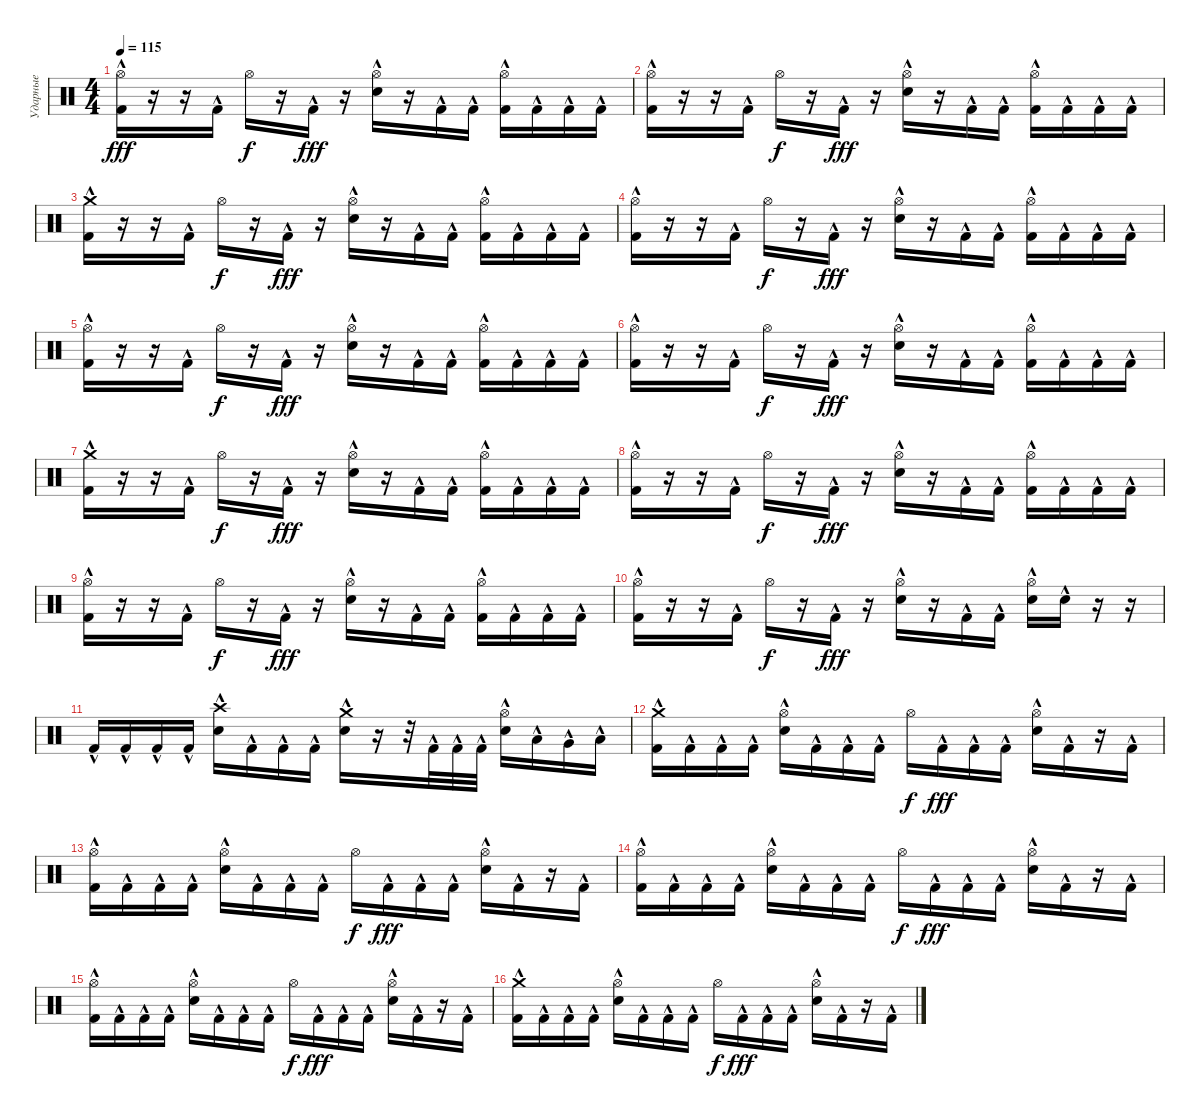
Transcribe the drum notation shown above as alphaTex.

\track ("Ударные" "Ударные") {instrument percussion}
\staff
\articulation defaults
\ts (4 4)
\tempo 115
\clef neutral
\ks c
("Hi-Hat (open)" "Kick (hit) 2"{hac}).16{dy fff} r.16 r.16 "Kick (hit) 2"{hac}.16 "Hi-Hat (open)".16{dy f} r.16 "Kick (hit) 2"{hac}.16{dy fff} r.16 ("Hi-Hat (open)" "Snare (hit) 2"{hac}).16 r.16 "Kick (hit) 2"{hac}.16 "Kick (hit) 2"{hac}.16 ("Hi-Hat (open)" "Kick (hit) 2"{hac}).16 "Kick (hit) 2"{hac}.16 "Kick (hit) 2"{hac}.16 "Kick (hit) 2"{hac}.16 |
("Hi-Hat (open)" "Kick (hit) 2"{hac}).16 r.16 r.16 "Kick (hit) 2"{hac}.16 "Hi-Hat (open)".16{dy f} r.16 "Kick (hit) 2"{hac}.16{dy fff} r.16 ("Hi-Hat (open)" "Snare (hit) 2"{hac}).16 r.16 "Kick (hit) 2"{hac}.16 "Kick (hit) 2"{hac}.16 ("Hi-Hat (open)" "Kick (hit) 2"{hac}).16 "Kick (hit) 2"{hac}.16 "Kick (hit) 2"{hac}.16 "Kick (hit) 2"{hac}.16 |
("Crash medium (hit)" "Kick (hit) 2"{hac}).16 r.16 r.16 "Kick (hit) 2"{hac}.16 "Hi-Hat (open)".16{dy f} r.16 "Kick (hit) 2"{hac}.16{dy fff} r.16 ("Hi-Hat (open)" "Snare (hit) 2"{hac}).16 r.16 "Kick (hit) 2"{hac}.16 "Kick (hit) 2"{hac}.16 ("Hi-Hat (open)" "Kick (hit) 2"{hac}).16 "Kick (hit) 2"{hac}.16 "Kick (hit) 2"{hac}.16 "Kick (hit) 2"{hac}.16 |
("Hi-Hat (open)" "Kick (hit) 2"{hac}).16 r.16 r.16 "Kick (hit) 2"{hac}.16 "Hi-Hat (open)".16{dy f} r.16 "Kick (hit) 2"{hac}.16{dy fff} r.16 ("Hi-Hat (open)" "Snare (hit) 2"{hac}).16 r.16 "Kick (hit) 2"{hac}.16 "Kick (hit) 2"{hac}.16 ("Hi-Hat (open)" "Kick (hit) 2"{hac}).16 "Kick (hit) 2"{hac}.16 "Kick (hit) 2"{hac}.16 "Kick (hit) 2"{hac}.16 |
("Hi-Hat (open)" "Kick (hit) 2"{hac}).16 r.16 r.16 "Kick (hit) 2"{hac}.16 "Hi-Hat (open)".16{dy f} r.16 "Kick (hit) 2"{hac}.16{dy fff} r.16 ("Hi-Hat (open)" "Snare (hit) 2"{hac}).16 r.16 "Kick (hit) 2"{hac}.16 "Kick (hit) 2"{hac}.16 ("Hi-Hat (open)" "Kick (hit) 2"{hac}).16 "Kick (hit) 2"{hac}.16 "Kick (hit) 2"{hac}.16 "Kick (hit) 2"{hac}.16 |
("Hi-Hat (open)" "Kick (hit) 2"{hac}).16 r.16 r.16 "Kick (hit) 2"{hac}.16 "Hi-Hat (open)".16{dy f} r.16 "Kick (hit) 2"{hac}.16{dy fff} r.16 ("Hi-Hat (open)" "Snare (hit) 2"{hac}).16 r.16 "Kick (hit) 2"{hac}.16 "Kick (hit) 2"{hac}.16 ("Hi-Hat (open)" "Kick (hit) 2"{hac}).16 "Kick (hit) 2"{hac}.16 "Kick (hit) 2"{hac}.16 "Kick (hit) 2"{hac}.16 |
("Crash medium (hit)" "Kick (hit) 2"{hac}).16 r.16 r.16 "Kick (hit) 2"{hac}.16 "Hi-Hat (open)".16{dy f} r.16 "Kick (hit) 2"{hac}.16{dy fff} r.16 ("Hi-Hat (open)" "Snare (hit) 2"{hac}).16 r.16 "Kick (hit) 2"{hac}.16 "Kick (hit) 2"{hac}.16 ("Hi-Hat (open)" "Kick (hit) 2"{hac}).16 "Kick (hit) 2"{hac}.16 "Kick (hit) 2"{hac}.16 "Kick (hit) 2"{hac}.16 |
("Hi-Hat (open)" "Kick (hit) 2"{hac}).16 r.16 r.16 "Kick (hit) 2"{hac}.16 "Hi-Hat (open)".16{dy f} r.16 "Kick (hit) 2"{hac}.16{dy fff} r.16 ("Hi-Hat (open)" "Snare (hit) 2"{hac}).16 r.16 "Kick (hit) 2"{hac}.16 "Kick (hit) 2"{hac}.16 ("Hi-Hat (open)" "Kick (hit) 2"{hac}).16 "Kick (hit) 2"{hac}.16 "Kick (hit) 2"{hac}.16 "Kick (hit) 2"{hac}.16 |
("Hi-Hat (open)" "Kick (hit) 2"{hac}).16 r.16 r.16 "Kick (hit) 2"{hac}.16 "Hi-Hat (open)".16{dy f} r.16 "Kick (hit) 2"{hac}.16{dy fff} r.16 ("Hi-Hat (open)" "Snare (hit) 2"{hac}).16 r.16 "Kick (hit) 2"{hac}.16 "Kick (hit) 2"{hac}.16 ("Hi-Hat (open)" "Kick (hit) 2"{hac}).16 "Kick (hit) 2"{hac}.16 "Kick (hit) 2"{hac}.16 "Kick (hit) 2"{hac}.16 |
("Hi-Hat (open)" "Kick (hit) 2"{hac}).16 r.16 r.16 "Kick (hit) 2"{hac}.16 "Hi-Hat (open)".16{dy f} r.16 "Kick (hit) 2"{hac}.16{dy fff} r.16 ("Hi-Hat (open)" "Snare (hit) 2"{hac}).16 r.16 "Kick (hit) 2"{hac}.16 "Kick (hit) 2"{hac}.16 ("Hi-Hat (open)" "Snare (hit) 2"{hac}).16 "Snare (hit) 2"{hac}.16 r.16 r.16 |
"Kick (hit) 2"{hac}.16 "Kick (hit) 2"{hac}.16 "Kick (hit) 2"{hac}.16 "Kick (hit) 2"{hac}.16 ("Crash high (hit)" "Snare (hit) 2"{hac}).16 "Kick (hit) 2"{hac}.16 "Kick (hit) 2"{hac}.16 "Kick (hit) 2"{hac}.16 ("Crash medium (hit)" "Snare (hit) 2"{hac}).16 r.16 r.32 "Kick (hit) 2"{hac}.32 "Kick (hit) 2"{hac}.32 "Kick (hit) 2"{hac}.32 ("Hi-Hat (open)" "Snare (hit) 2"{hac}).16 "Low Tom (hit)"{hac}.16 "Very Low Tom (hit)"{hac}.16 "Low Floor Tom (hit)"{hac}.16 |
("Crash medium (hit)" "Kick (hit) 2"{hac}).16 "Kick (hit) 2"{hac}.16 "Kick (hit) 2"{hac}.16 "Kick (hit) 2"{hac}.16 ("Hi-Hat (open)" "Snare (hit) 2"{hac}).16 "Kick (hit) 2"{hac}.16 "Kick (hit) 2"{hac}.16 "Kick (hit) 2"{hac}.16 "Hi-Hat (open)".16{dy f} "Kick (hit) 2"{hac}.16{dy fff} "Kick (hit) 2"{hac}.16 "Kick (hit) 2"{hac}.16 ("Hi-Hat (open)" "Snare (hit) 2"{hac}).16 "Kick (hit) 2"{hac}.16 r.16 "Kick (hit) 2"{hac}.16 |
("Hi-Hat (open)" "Kick (hit) 2"{hac}).16 "Kick (hit) 2"{hac}.16 "Kick (hit) 2"{hac}.16 "Kick (hit) 2"{hac}.16 ("Hi-Hat (open)" "Snare (hit) 2"{hac}).16 "Kick (hit) 2"{hac}.16 "Kick (hit) 2"{hac}.16 "Kick (hit) 2"{hac}.16 "Hi-Hat (open)".16{dy f} "Kick (hit) 2"{hac}.16{dy fff} "Kick (hit) 2"{hac}.16 "Kick (hit) 2"{hac}.16 ("Hi-Hat (open)" "Snare (hit) 2"{hac}).16 "Kick (hit) 2"{hac}.16 r.16 "Kick (hit) 2"{hac}.16 |
("Hi-Hat (open)" "Kick (hit) 2"{hac}).16 "Kick (hit) 2"{hac}.16 "Kick (hit) 2"{hac}.16 "Kick (hit) 2"{hac}.16 ("Hi-Hat (open)" "Snare (hit) 2"{hac}).16 "Kick (hit) 2"{hac}.16 "Kick (hit) 2"{hac}.16 "Kick (hit) 2"{hac}.16 "Hi-Hat (open)".16{dy f} "Kick (hit) 2"{hac}.16{dy fff} "Kick (hit) 2"{hac}.16 "Kick (hit) 2"{hac}.16 ("Hi-Hat (open)" "Snare (hit) 2"{hac}).16 "Kick (hit) 2"{hac}.16 r.16 "Kick (hit) 2"{hac}.16 |
("Hi-Hat (open)" "Kick (hit) 2"{hac}).16 "Kick (hit) 2"{hac}.16 "Kick (hit) 2"{hac}.16 "Kick (hit) 2"{hac}.16 ("Hi-Hat (open)" "Snare (hit) 2"{hac}).16 "Kick (hit) 2"{hac}.16 "Kick (hit) 2"{hac}.16 "Kick (hit) 2"{hac}.16 "Hi-Hat (open)".16{dy f} "Kick (hit) 2"{hac}.16{dy fff} "Kick (hit) 2"{hac}.16 "Kick (hit) 2"{hac}.16 ("Hi-Hat (open)" "Snare (hit) 2"{hac}).16 "Kick (hit) 2"{hac}.16 r.16 "Kick (hit) 2"{hac}.16 |
("Crash medium (hit)" "Kick (hit) 2"{hac}).16 "Kick (hit) 2"{hac}.16 "Kick (hit) 2"{hac}.16 "Kick (hit) 2"{hac}.16 ("Hi-Hat (open)" "Snare (hit) 2"{hac}).16 "Kick (hit) 2"{hac}.16 "Kick (hit) 2"{hac}.16 "Kick (hit) 2"{hac}.16 "Hi-Hat (open)".16{dy f} "Kick (hit) 2"{hac}.16{dy fff} "Kick (hit) 2"{hac}.16 "Kick (hit) 2"{hac}.16 ("Hi-Hat (open)" "Snare (hit) 2"{hac}).16 "Kick (hit) 2"{hac}.16 r.16 "Kick (hit) 2"{hac}.16
